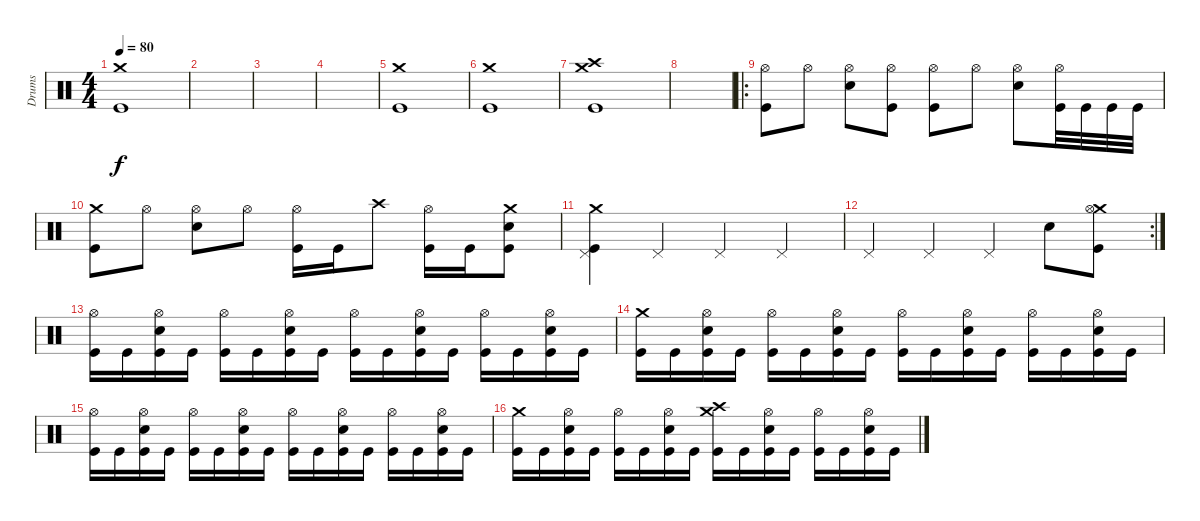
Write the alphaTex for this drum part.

\track ("Drums" "Drums") {instrument percussion}
\staff {score}
\articulation defaults
\ts (4 4)
\tempo 80
\clef neutral
\ks c
("Crash medium (hit)" "Kick (hit)").1{dy f} |
|
|
|
("Crash medium (hit)" "Kick (hit)").1 |
("Crash medium (hit)" "Kick (hit)").1 |
("Crash medium (hit)" "Crash high (hit)" "Kick (hit)").1 |
|
\ro
("Hi-Hat (open)" "Kick (hit)").8 "Hi-Hat (open)".8 ("Hi-Hat (open)" "Snare (hit) 2").8 ("Hi-Hat (open)" "Kick (hit)").8 ("Hi-Hat (open)" "Kick (hit)").8 "Hi-Hat (open)".8 ("Hi-Hat (open)" "Snare (hit) 2").8 ("Hi-Hat (open)" "Kick (hit)").32 "Kick (hit)".32 "Kick (hit)".32 "Kick (hit)".32 |
("Crash medium (hit)" "Kick (hit)").8 "Hi-Hat (open)".8 ("Hi-Hat (open)" "Snare (hit) 2").8 "Hi-Hat (open)".8 ("Hi-Hat (open)" "Kick (hit)").16 "Kick (hit)".16 "Crash high (hit)".8 ("Hi-Hat (open)" "Kick (hit)").16 "Kick (hit)".16 ("Crash medium (hit)" "Snare (hit) 2" "Kick (hit)").8 |
("Pedal Hi-Hat (hit)" "Crash medium (hit)" "Kick (hit)").4 "Pedal Hi-Hat (hit)".4 "Pedal Hi-Hat (hit)".4 "Pedal Hi-Hat (hit)".4 |
\rc 2 "Pedal Hi-Hat (hit)".4 "Pedal Hi-Hat (hit)".4 "Pedal Hi-Hat (hit)".4 "Snare (hit) 2".8
("Crash medium (hit)" "Hi-Hat (open)" "Kick (hit)").8 |
("Hi-Hat (open)" "Kick (hit)").16 "Kick (hit)".16 ("Hi-Hat (open)" "Snare (hit) 2" "Kick (hit)").16 "Kick (hit)".16 ("Hi-Hat (open)" "Kick (hit)").16 "Kick (hit)".16 ("Hi-Hat (open)" "Snare (hit) 2" "Kick (hit)").16 "Kick (hit)".16 ("Hi-Hat (open)" "Kick (hit)").16 "Kick (hit)".16 ("Hi-Hat (open)" "Snare (hit) 2" "Kick (hit)").16 "Kick (hit)".16 ("Hi-Hat (open)" "Kick (hit)").16 "Kick (hit)".16 ("Hi-Hat (open)" "Snare (hit) 2" "Kick (hit)").16 "Kick (hit)".16 |
("Crash medium (hit)" "Kick (hit)").16 "Kick (hit)".16 ("Hi-Hat (open)" "Snare (hit) 2" "Kick (hit)").16 "Kick (hit)".16 ("Hi-Hat (open)" "Kick (hit)").16 "Kick (hit)".16 ("Hi-Hat (open)" "Snare (hit) 2" "Kick (hit)").16 "Kick (hit)".16 ("Hi-Hat (open)" "Kick (hit)").16 "Kick (hit)".16 ("Hi-Hat (open)" "Snare (hit) 2" "Kick (hit)").16 "Kick (hit)".16 ("Hi-Hat (open)" "Kick (hit)").16 "Kick (hit)".16 ("Hi-Hat (open)" "Snare (hit) 2" "Kick (hit)").16 "Kick (hit)".16 |
("Hi-Hat (open)" "Kick (hit)").16 "Kick (hit)".16 ("Hi-Hat (open)" "Snare (hit) 2" "Kick (hit)").16 "Kick (hit)".16 ("Hi-Hat (open)" "Kick (hit)").16 "Kick (hit)".16 ("Hi-Hat (open)" "Snare (hit) 2" "Kick (hit)").16 "Kick (hit)".16 ("Hi-Hat (open)" "Kick (hit)").16 "Kick (hit)".16 ("Hi-Hat (open)" "Snare (hit) 2" "Kick (hit)").16 "Kick (hit)".16 ("Hi-Hat (open)" "Kick (hit)").16 "Kick (hit)".16 ("Hi-Hat (open)" "Snare (hit) 2" "Kick (hit)").16 "Kick (hit)".16 |
("Crash medium (hit)" "Kick (hit)").16 "Kick (hit)".16 ("Hi-Hat (open)" "Snare (hit) 2" "Kick (hit)").16 "Kick (hit)".16 ("Hi-Hat (open)" "Kick (hit)").16 "Kick (hit)".16 ("Hi-Hat (open)" "Snare (hit) 2" "Kick (hit)").16 "Kick (hit)".16 ("Crash medium (hit)" "Crash high (hit)" "Kick (hit)").16 "Kick (hit)".16 ("Hi-Hat (open)" "Snare (hit) 2" "Kick (hit)").16 "Kick (hit)".16 ("Hi-Hat (open)" "Kick (hit)").16 "Kick (hit)".16 ("Hi-Hat (open)" "Snare (hit) 2" "Kick (hit)").16 "Kick (hit)".16
